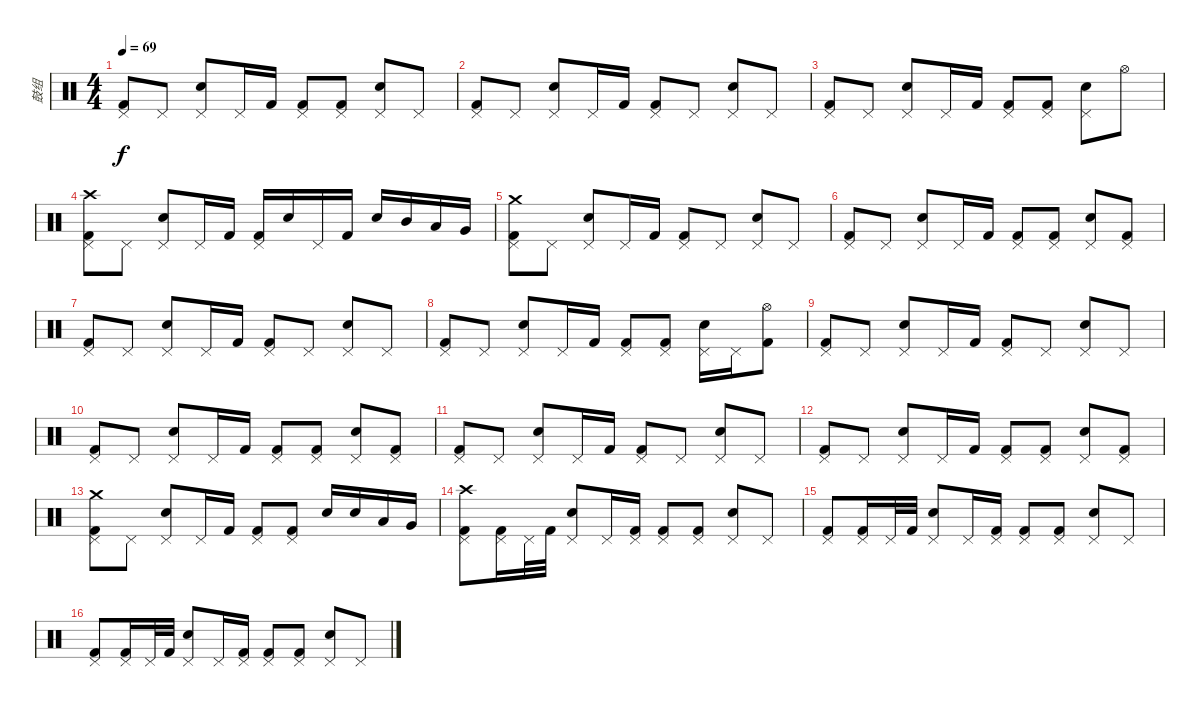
\track ("鼓组" "鼓组") {instrument percussion}
\staff {score}
\articulation defaults
\ts (4 4)
\tempo 69
\clef neutral
\ks c
("Kick (hit) 2" "Pedal Hi-Hat (hit)").8{dy f} "Pedal Hi-Hat (hit)".8 ("Snare (hit) 2" "Pedal Hi-Hat (hit)").8 "Pedal Hi-Hat (hit)".16 "Kick (hit) 2".16 ("Kick (hit) 2" "Pedal Hi-Hat (hit)").8 ("Kick (hit) 2" "Pedal Hi-Hat (hit)").8 ("Snare (hit) 2" "Pedal Hi-Hat (hit)").8 "Pedal Hi-Hat (hit)".8 |
("Kick (hit) 2" "Pedal Hi-Hat (hit)").8 "Pedal Hi-Hat (hit)".8 ("Snare (hit) 2" "Pedal Hi-Hat (hit)").8 "Pedal Hi-Hat (hit)".16 "Kick (hit) 2".16 ("Kick (hit) 2" "Pedal Hi-Hat (hit)").8 "Pedal Hi-Hat (hit)".8 ("Snare (hit) 2" "Pedal Hi-Hat (hit)").8 "Pedal Hi-Hat (hit)".8 |
("Kick (hit) 2" "Pedal Hi-Hat (hit)").8 "Pedal Hi-Hat (hit)".8 ("Snare (hit) 2" "Pedal Hi-Hat (hit)").8 "Pedal Hi-Hat (hit)".16 "Kick (hit) 2".16 ("Kick (hit) 2" "Pedal Hi-Hat (hit)").8 ("Kick (hit) 2" "Pedal Hi-Hat (hit)").8 ("Snare (hit) 2" "Pedal Hi-Hat (hit)").8 "Hi-Hat (open)".8 |
("Crash high (hit)" "Kick (hit) 2" "Pedal Hi-Hat (hit)").8 "Pedal Hi-Hat (hit)".8 ("Snare (hit) 2" "Pedal Hi-Hat (hit)").8 "Pedal Hi-Hat (hit)".16 "Kick (hit) 2".16 ("Kick (hit) 2" "Pedal Hi-Hat (hit)").16 "Snare (hit) 2".16 "Pedal Hi-Hat (hit)".16 "Kick (hit) 2".16 "Snare (hit) 2".16 "Mid Tom (hit)".16 "Low Tom (hit)".16 "Very Low Tom (hit)".16 |
("Crash medium (hit)" "Kick (hit) 2" "Pedal Hi-Hat (hit)").8 "Pedal Hi-Hat (hit)".8 ("Snare (hit) 2" "Pedal Hi-Hat (hit)").8 "Pedal Hi-Hat (hit)".16 "Kick (hit) 2".16 ("Kick (hit) 2" "Pedal Hi-Hat (hit)").8 "Pedal Hi-Hat (hit)".8 ("Snare (hit) 2" "Pedal Hi-Hat (hit)").8 "Pedal Hi-Hat (hit)".8 |
("Kick (hit) 2" "Pedal Hi-Hat (hit)").8 "Pedal Hi-Hat (hit)".8 ("Snare (hit) 2" "Pedal Hi-Hat (hit)").8 "Pedal Hi-Hat (hit)".16 "Kick (hit) 2".16 ("Kick (hit) 2" "Pedal Hi-Hat (hit)").8 ("Kick (hit) 2" "Pedal Hi-Hat (hit)").8 ("Snare (hit) 2" "Pedal Hi-Hat (hit)").8 ("Kick (hit) 2" "Pedal Hi-Hat (hit)").8 |
("Kick (hit) 2" "Pedal Hi-Hat (hit)").8 "Pedal Hi-Hat (hit)".8 ("Snare (hit) 2" "Pedal Hi-Hat (hit)").8 "Pedal Hi-Hat (hit)".16 "Kick (hit) 2".16 ("Kick (hit) 2" "Pedal Hi-Hat (hit)").8 "Pedal Hi-Hat (hit)".8 ("Snare (hit) 2" "Pedal Hi-Hat (hit)").8 "Pedal Hi-Hat (hit)".8 |
("Kick (hit) 2" "Pedal Hi-Hat (hit)").8 "Pedal Hi-Hat (hit)".8 ("Snare (hit) 2" "Pedal Hi-Hat (hit)").8 "Pedal Hi-Hat (hit)".16 "Kick (hit) 2".16 ("Kick (hit) 2" "Pedal Hi-Hat (hit)").8 ("Kick (hit) 2" "Pedal Hi-Hat (hit)").8 ("Snare (hit) 2" "Pedal Hi-Hat (hit)").16 "Pedal Hi-Hat (hit)".16 ("Kick (hit) 2" "Hi-Hat (open)").8 |
("Kick (hit) 2" "Pedal Hi-Hat (hit)").8 "Pedal Hi-Hat (hit)".8 ("Snare (hit) 2" "Pedal Hi-Hat (hit)").8 "Pedal Hi-Hat (hit)".16 "Kick (hit) 2".16 ("Kick (hit) 2" "Pedal Hi-Hat (hit)").8 "Pedal Hi-Hat (hit)".8 ("Snare (hit) 2" "Pedal Hi-Hat (hit)").8 "Pedal Hi-Hat (hit)".8 |
("Kick (hit) 2" "Pedal Hi-Hat (hit)").8 "Pedal Hi-Hat (hit)".8 ("Snare (hit) 2" "Pedal Hi-Hat (hit)").8 "Pedal Hi-Hat (hit)".16 "Kick (hit) 2".16 ("Kick (hit) 2" "Pedal Hi-Hat (hit)").8 ("Kick (hit) 2" "Pedal Hi-Hat (hit)").8 ("Snare (hit) 2" "Pedal Hi-Hat (hit)").8 ("Kick (hit) 2" "Pedal Hi-Hat (hit)").8 |
("Kick (hit) 2" "Pedal Hi-Hat (hit)").8 "Pedal Hi-Hat (hit)".8 ("Snare (hit) 2" "Pedal Hi-Hat (hit)").8 "Pedal Hi-Hat (hit)".16 "Kick (hit) 2".16 ("Kick (hit) 2" "Pedal Hi-Hat (hit)").8 "Pedal Hi-Hat (hit)".8 ("Snare (hit) 2" "Pedal Hi-Hat (hit)").8 "Pedal Hi-Hat (hit)".8 |
("Kick (hit) 2" "Pedal Hi-Hat (hit)").8 "Pedal Hi-Hat (hit)".8 ("Snare (hit) 2" "Pedal Hi-Hat (hit)").8 "Pedal Hi-Hat (hit)".16 "Kick (hit) 2".16 ("Kick (hit) 2" "Pedal Hi-Hat (hit)").8 ("Kick (hit) 2" "Pedal Hi-Hat (hit)").8 ("Snare (hit) 2" "Pedal Hi-Hat (hit)").8 ("Kick (hit) 2" "Pedal Hi-Hat (hit)").8 |
("Crash medium (hit)" "Kick (hit) 2" "Pedal Hi-Hat (hit)").8 "Pedal Hi-Hat (hit)".8 ("Snare (hit) 2" "Pedal Hi-Hat (hit)").8 "Pedal Hi-Hat (hit)".16 "Kick (hit) 2".16 ("Kick (hit) 2" "Pedal Hi-Hat (hit)").8 ("Kick (hit) 2" "Pedal Hi-Hat (hit)").8 "Snare (hit) 2".16 "Snare (hit) 2".16 "Low Tom (hit)".16 "Very Low Tom (hit)".16 |
("Crash high (hit)" "Kick (hit) 2" "Pedal Hi-Hat (hit)").8 ("Kick (hit) 2" "Pedal Hi-Hat (hit)").16 "Pedal Hi-Hat (hit)".32 "Kick (hit) 2".32 ("Snare (hit) 2" "Pedal Hi-Hat (hit)").8 "Pedal Hi-Hat (hit)".16 ("Kick (hit) 2" "Pedal Hi-Hat (hit)").16 ("Kick (hit) 2" "Pedal Hi-Hat (hit)").8 ("Kick (hit) 2" "Pedal Hi-Hat (hit)").8 ("Snare (hit) 2" "Pedal Hi-Hat (hit)").8 "Pedal Hi-Hat (hit)".8 |
("Kick (hit) 2" "Pedal Hi-Hat (hit)").8 ("Kick (hit) 2" "Pedal Hi-Hat (hit)").16 "Pedal Hi-Hat (hit)".32 "Kick (hit) 2".32 ("Snare (hit) 2" "Pedal Hi-Hat (hit)").8 "Pedal Hi-Hat (hit)".16 ("Kick (hit) 2" "Pedal Hi-Hat (hit)").16 ("Kick (hit) 2" "Pedal Hi-Hat (hit)").8 ("Kick (hit) 2" "Pedal Hi-Hat (hit)").8 ("Snare (hit) 2" "Pedal Hi-Hat (hit)").8 "Pedal Hi-Hat (hit)".8 |
("Kick (hit) 2" "Pedal Hi-Hat (hit)").8 ("Kick (hit) 2" "Pedal Hi-Hat (hit)").16 "Pedal Hi-Hat (hit)".32 "Kick (hit) 2".32 ("Snare (hit) 2" "Pedal Hi-Hat (hit)").8 "Pedal Hi-Hat (hit)".16 ("Kick (hit) 2" "Pedal Hi-Hat (hit)").16 ("Kick (hit) 2" "Pedal Hi-Hat (hit)").8 ("Kick (hit) 2" "Pedal Hi-Hat (hit)").8 ("Snare (hit) 2" "Pedal Hi-Hat (hit)").8 "Pedal Hi-Hat (hit)".8
